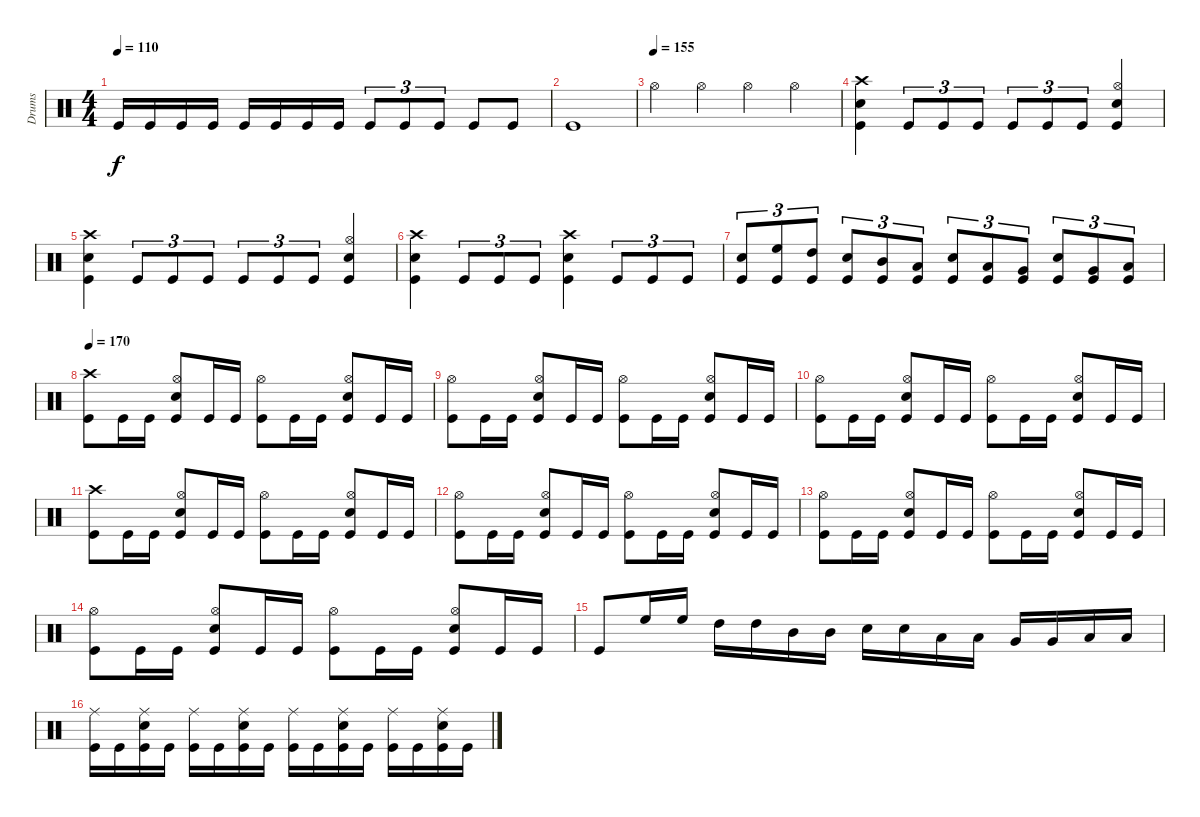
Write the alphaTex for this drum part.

\track ("Drums" "Drums") {instrument percussion}
\staff {score}
\articulation defaults
\ts (4 4)
\tempo 110
\clef neutral
\ks c "Kick (hit)".16{dy f} "Kick (hit)".16 "Kick (hit)".16 "Kick (hit)".16 "Kick (hit)".16 "Kick (hit)".16 "Kick (hit)".16 "Kick (hit)".16 "Kick (hit)".8{tu (3 2)} "Kick (hit)".8{tu (3 2)} "Kick (hit)".8{tu (3 2)} "Kick (hit)".8 "Kick (hit)".8
|
"Kick (hit)".1 |
\tempo (155)
"Hi-Hat (open)".4 "Hi-Hat (open)".4 "Hi-Hat (open)".4 "Hi-Hat (open)".4 |
("Kick (hit)" "Snare (hit) 2" "Crash high (hit)").4 "Kick (hit)".8{tu (3 2)} "Kick (hit)".8{tu (3 2)} "Kick (hit)".8{tu (3 2)} "Kick (hit)".8{tu (3 2)} "Kick (hit)".8{tu (3 2)} "Kick (hit)".8{tu (3 2)} ("Kick (hit)" "Snare (hit) 2" "Hi-Hat (open)").4 |
("Kick (hit)" "Snare (hit) 2" "Crash high (hit)").4 "Kick (hit)".8{tu (3 2)} "Kick (hit)".8{tu (3 2)} "Kick (hit)".8{tu (3 2)} "Kick (hit)".8{tu (3 2)} "Kick (hit)".8{tu (3 2)} "Kick (hit)".8{tu (3 2)} ("Kick (hit)" "Snare (hit) 2" "Hi-Hat (open)").4 |
("Kick (hit)" "Snare (hit) 2" "Crash high (hit)").4 "Kick (hit)".8{tu (3 2)} "Kick (hit)".8{tu (3 2)} "Kick (hit)".8{tu (3 2)} ("Kick (hit)" "Snare (hit) 2" "Crash high (hit)").4 "Kick (hit)".8{tu (3 2)} "Kick (hit)".8{tu (3 2)} "Kick (hit)".8{tu (3 2)} |
("Kick (hit)" "Snare (hit) 2").8{tu (3 2)} ("Kick (hit)" "High Floor Tom (hit)").8{tu (3 2)} ("Kick (hit)" "High Tom (hit)").8{tu (3 2)} ("Kick (hit)" "Snare (hit) 2").8{tu (3 2)} ("Kick (hit)" "Mid Tom (hit)").8{tu (3 2)} ("Low Tom (hit)" "Kick (hit)").8{tu (3 2)} ("Kick (hit)" "Snare (hit) 2").8{tu (3 2)} ("Kick (hit)" "Low Tom (hit)").8{tu (3 2)} ("Kick (hit)" "Very Low Tom (hit)").8{tu (3 2)} ("Kick (hit)" "Snare (hit) 2").8{tu (3 2)} ("Very Low Tom (hit)" "Kick (hit)").8{tu (3 2)} ("Kick (hit)" "Low Floor Tom (hit)").8{tu (3 2)} |
\tempo 170
("Kick (hit)" "Crash high (hit)").8 "Kick (hit)".16 "Kick (hit)".16 ("Kick (hit)" "Snare (hit) 2" "Hi-Hat (open)").8 "Kick (hit)".16 "Kick (hit)".16 ("Kick (hit)" "Hi-Hat (open)").8 "Kick (hit)".16 "Kick (hit)".16 ("Kick (hit)" "Snare (hit) 2" "Hi-Hat (open)").8 "Kick (hit)".16 "Kick (hit)".16 |
("Kick (hit)" "Hi-Hat (open)").8 "Kick (hit)".16 "Kick (hit)".16 ("Kick (hit)" "Snare (hit) 2" "Hi-Hat (open)").8 "Kick (hit)".16 "Kick (hit)".16 ("Kick (hit)" "Hi-Hat (open)").8 "Kick (hit)".16 "Kick (hit)".16 ("Kick (hit)" "Snare (hit) 2" "Hi-Hat (open)").8 "Kick (hit)".16 "Kick (hit)".16 |
("Kick (hit)" "Hi-Hat (open)").8 "Kick (hit)".16 "Kick (hit)".16 ("Kick (hit)" "Snare (hit) 2" "Hi-Hat (open)").8 "Kick (hit)".16 "Kick (hit)".16 ("Kick (hit)" "Hi-Hat (open)").8 "Kick (hit)".16 "Kick (hit)".16 ("Kick (hit)" "Snare (hit) 2" "Hi-Hat (open)").8 "Kick (hit)".16 "Kick (hit)".16 |
("Kick (hit)" "Crash high (hit)").8 "Kick (hit)".16 "Kick (hit)".16 ("Kick (hit)" "Snare (hit) 2" "Hi-Hat (open)").8 "Kick (hit)".16 "Kick (hit)".16 ("Kick (hit)" "Hi-Hat (open)").8 "Kick (hit)".16 "Kick (hit)".16 ("Kick (hit)" "Snare (hit) 2" "Hi-Hat (open)").8 "Kick (hit)".16 "Kick (hit)".16 |
("Kick (hit)" "Hi-Hat (open)").8 "Kick (hit)".16 "Kick (hit)".16 ("Kick (hit)" "Snare (hit) 2" "Hi-Hat (open)").8 "Kick (hit)".16 "Kick (hit)".16 ("Kick (hit)" "Hi-Hat (open)").8 "Kick (hit)".16 "Kick (hit)".16 ("Kick (hit)" "Snare (hit) 2" "Hi-Hat (open)").8 "Kick (hit)".16 "Kick (hit)".16 |
("Kick (hit)" "Hi-Hat (open)").8 "Kick (hit)".16 "Kick (hit)".16 ("Kick (hit)" "Snare (hit) 2" "Hi-Hat (open)").8 "Kick (hit)".16 "Kick (hit)".16 ("Kick (hit)" "Hi-Hat (open)").8 "Kick (hit)".16 "Kick (hit)".16 ("Kick (hit)" "Snare (hit) 2" "Hi-Hat (open)").8 "Kick (hit)".16 "Kick (hit)".16 |
("Kick (hit)" "Hi-Hat (open)").8 "Kick (hit)".16 "Kick (hit)".16 ("Kick (hit)" "Snare (hit) 2" "Hi-Hat (open)").8 "Kick (hit)".16 "Kick (hit)".16 ("Kick (hit)" "Hi-Hat (open)").8 "Kick (hit)".16 "Kick (hit)".16 ("Kick (hit)" "Snare (hit) 2" "Hi-Hat (open)").8 "Kick (hit)".16 "Kick (hit)".16 |
"Kick (hit)".8 "High Floor Tom (hit)".16 "High Floor Tom (hit)".16 "High Tom (hit)".16 "High Tom (hit)".16 "Mid Tom (hit)".16 "Mid Tom (hit)".16 "Snare (hit) 2".16 "Snare (hit) 2".16 "Low Tom (hit)".16 "Low Tom (hit)".16 "Very Low Tom (hit)".16 "Very Low Tom (hit)".16 "Low Floor Tom (hit)".16 "Low Floor Tom (hit)".16 |
("Kick (hit)" "Ride (middle)").16 "Kick (hit)".16 ("Kick (hit)" "Snare (hit) 2" "Ride (middle)").16 "Kick (hit)".16 ("Kick (hit)" "Ride (middle)").16 "Kick (hit)".16 ("Kick (hit)" "Snare (hit) 2" "Ride (middle)").16 "Kick (hit)".16 ("Kick (hit)" "Ride (middle)").16 "Kick (hit)".16 ("Kick (hit)" "Snare (hit) 2" "Ride (middle)").16 "Kick (hit)".16 ("Kick (hit)" "Ride (middle)").16 "Kick (hit)".16 ("Kick (hit)" "Snare (hit) 2" "Ride (middle)").16 "Kick (hit)".16
